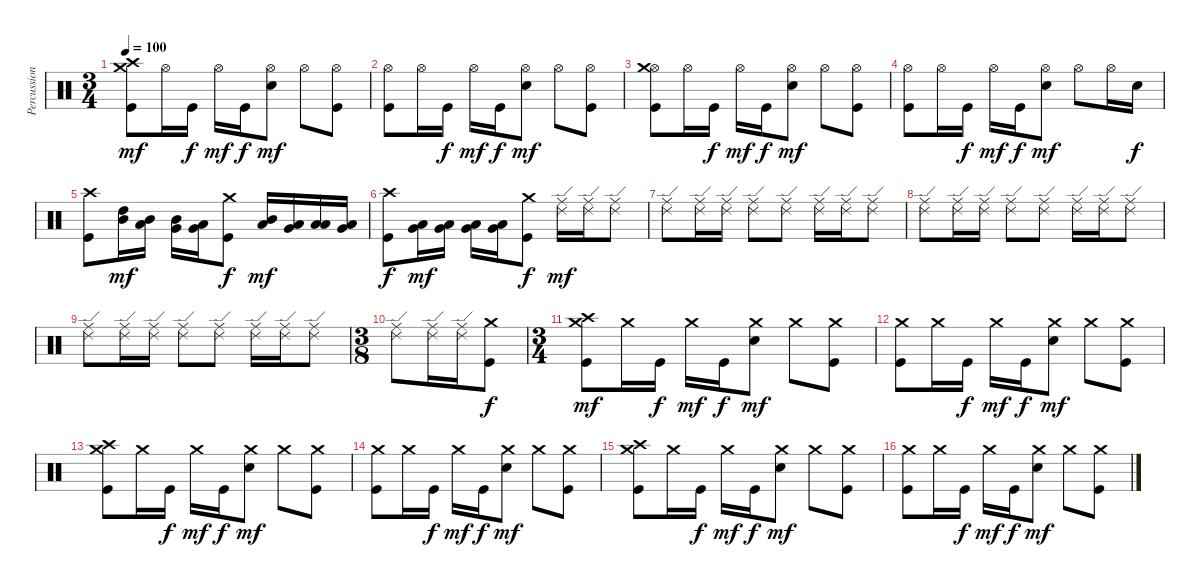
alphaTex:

\track ("Percussions" "Percussion") {instrument percussion}
\staff {score}
\articulation defaults
\ts (3 4)
\tempo 100
\clef neutral
\ks c
("Kick (hit)" "Crash medium (hit)" "Crash high (hit)").8{dy mf} "Hi-Hat (open)".16 "Kick (hit)".16{dy f} "Hi-Hat (open)".16{dy mf} "Kick (hit)".16{dy f} ("Electric Snare (hit)" "Hi-Hat (open)").8{dy mf} "Hi-Hat (open)".8 ("Kick (hit)" "Hi-Hat (open)").8 |
("Kick (hit)" "Hi-Hat (open)").8 "Hi-Hat (open)".16 "Kick (hit)".16{dy f} "Hi-Hat (open)".16{dy mf} "Kick (hit)".16{dy f} ("Electric Snare (hit)" "Hi-Hat (open)").8{dy mf} "Hi-Hat (open)".8 ("Kick (hit)" "Hi-Hat (open)").8 |
("Kick (hit)" "Hi-Hat (open)" "Crash medium (hit)").8 "Hi-Hat (open)".16 "Kick (hit)".16{dy f} "Hi-Hat (open)".16{dy mf} "Kick (hit)".16{dy f} ("Electric Snare (hit)" "Hi-Hat (open)").8{dy mf} "Hi-Hat (open)".8 ("Kick (hit)" "Hi-Hat (open)").8 |
("Kick (hit)" "Hi-Hat (open)").8 "Hi-Hat (open)".16 "Kick (hit)".16{dy f} "Hi-Hat (open)".16{dy mf} "Kick (hit)".16{dy f} ("Electric Snare (hit)" "Hi-Hat (open)").8{dy mf} "Hi-Hat (open)".8 "Hi-Hat (open)".16 "Electric Snare (hit)".16{dy f} |
("Kick (hit)" "Crash high (hit)").8 ("Mid Tom (hit)" "High Tom (hit)").16{dy mf} ("Low Tom (hit)" "Mid Tom (hit)").16 ("Very Low Tom (hit)" "Mid Tom (hit)").16 ("Very Low Tom (hit)" "Low Tom (hit)").16 ("Kick (hit)" "Crash medium (hit)").8{dy f} ("Low Tom (hit)" "Mid Tom (hit)").16{dy mf} ("Very Low Tom (hit)" "Low Tom (hit)").16 ("Low Floor Tom (hit)" "Low Tom (hit)").16 ("Low Floor Tom (hit)" "Very Low Tom (hit)").16 |
("Kick (hit)" "Crash high (hit)").8{dy f} ("Very Low Tom (hit)" "Low Tom (hit)").16{dy mf} ("Low Floor Tom (hit)" "Very Low Tom (hit)").16 ("Low Floor Tom (hit)" "Very Low Tom (hit)").16 ("Very Low Tom (hit)" "Low Floor Tom (hit)").16 ("Kick (hit)" "Crash medium (hit)").8{dy f} ("Ride (middle)" "Ride (edge) 2").16{dy mf} ("Ride (middle)" "Ride (edge) 2").16 ("Ride (middle)" "Ride (edge) 2").8 |
("Ride (middle)" "Ride (edge) 2").8 ("Ride (middle)" "Ride (edge) 2").16 ("Ride (middle)" "Ride (edge) 2").16 ("Ride (middle)" "Ride (edge) 2").8 ("Ride (middle)" "Ride (edge) 2").8 ("Ride (middle)" "Ride (edge) 2").16 ("Ride (middle)" "Ride (edge) 2").16 ("Ride (middle)" "Ride (edge) 2").8 |
("Ride (middle)" "Ride (edge) 2").8 ("Ride (middle)" "Ride (edge) 2").16 ("Ride (middle)" "Ride (edge) 2").16 ("Ride (middle)" "Ride (edge) 2").8 ("Ride (middle)" "Ride (edge) 2").8 ("Ride (middle)" "Ride (edge) 2").16 ("Ride (middle)" "Ride (edge) 2").16 ("Ride (middle)" "Ride (edge) 2").8 |
("Ride (middle)" "Ride (edge) 2").8 ("Ride (middle)" "Ride (edge) 2").16 ("Ride (middle)" "Ride (edge) 2").16 ("Ride (middle)" "Ride (edge) 2").8 ("Ride (middle)" "Ride (edge) 2").8 ("Ride (middle)" "Ride (edge) 2").16 ("Ride (middle)" "Ride (edge) 2").16 ("Ride (middle)" "Ride (edge) 2").8 |
\ts (3 8)
("Ride (middle)" "Ride (edge) 2").8 ("Ride (middle)" "Ride (edge) 2").16 ("Ride (middle)" "Ride (edge) 2").16 ("Kick (hit)" "Crash medium (hit)").8{dy f} |
\ts (3 4)
("Kick (hit)" "Crash medium (hit)" "Crash high (hit)").8{dy mf} "Crash medium (hit)".16 "Kick (hit)".16{dy f} "Crash medium (hit)".16{dy mf} "Kick (hit)".16{dy f} ("Electric Snare (hit)" "Crash medium (hit)").8{dy mf} "Crash medium (hit)".8 ("Kick (hit)" "Crash medium (hit)").8 |
("Kick (hit)" "Crash medium (hit)").8 "Crash medium (hit)".16 "Kick (hit)".16{dy f} "Crash medium (hit)".16{dy mf} "Kick (hit)".16{dy f} ("Electric Snare (hit)" "Crash medium (hit)").8{dy mf} "Crash medium (hit)".8 ("Kick (hit)" "Crash medium (hit)").8 |
("Kick (hit)" "Crash medium (hit)" "Crash high (hit)").8 "Crash medium (hit)".16 "Kick (hit)".16{dy f} "Crash medium (hit)".16{dy mf} "Kick (hit)".16{dy f} ("Electric Snare (hit)" "Crash medium (hit)").8{dy mf} "Crash medium (hit)".8 ("Kick (hit)" "Crash medium (hit)").8 |
("Kick (hit)" "Crash medium (hit)").8 "Crash medium (hit)".16 "Kick (hit)".16{dy f} "Crash medium (hit)".16{dy mf} "Kick (hit)".16{dy f} ("Electric Snare (hit)" "Crash medium (hit)").8{dy mf} "Crash medium (hit)".8 ("Kick (hit)" "Crash medium (hit)").8 |
("Kick (hit)" "Crash medium (hit)" "Crash high (hit)").8 "Crash medium (hit)".16 "Kick (hit)".16{dy f} "Crash medium (hit)".16{dy mf} "Kick (hit)".16{dy f} ("Electric Snare (hit)" "Crash medium (hit)").8{dy mf} "Crash medium (hit)".8 ("Kick (hit)" "Crash medium (hit)").8 |
("Kick (hit)" "Crash medium (hit)").8 "Crash medium (hit)".16 "Kick (hit)".16{dy f} "Crash medium (hit)".16{dy mf} "Kick (hit)".16{dy f} ("Electric Snare (hit)" "Crash medium (hit)").8{dy mf} "Crash medium (hit)".8 ("Kick (hit)" "Crash medium (hit)").8
